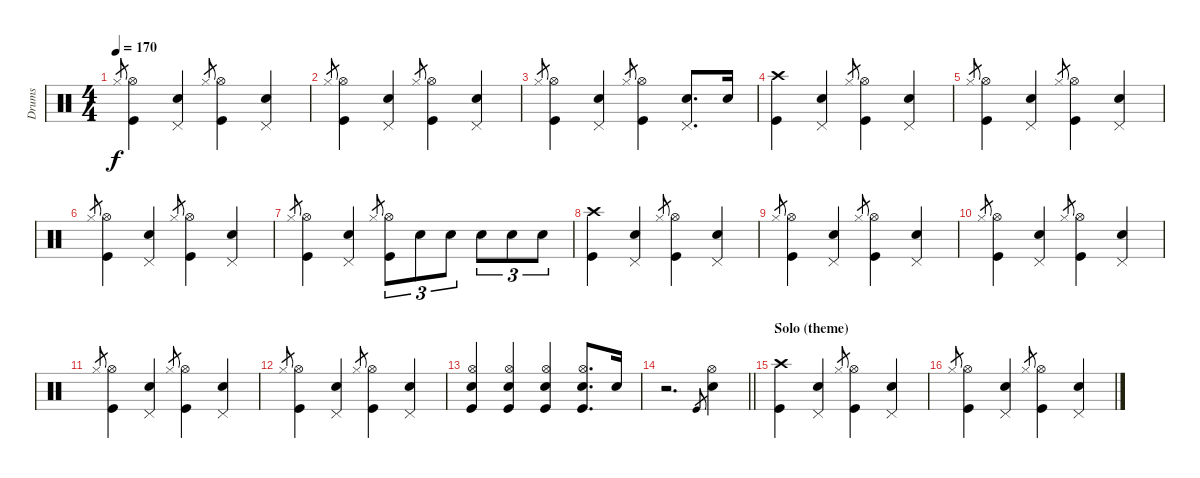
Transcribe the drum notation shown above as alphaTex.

\track ("Drums" "Drums") {instrument percussion}
\staff {score}
\articulation defaults
\ts (4 4)
\tempo 170
\clef neutral
\ks aminor "Hi-Hat (closed)".8{gr dy f}
("Kick (hit)" "Hi-Hat (open)").4 ("Electric Snare (hit)" "Pedal Hi-Hat (hit)").4 "Hi-Hat (closed)".8{gr} ("Kick (hit)" "Hi-Hat (open)").4 ("Electric Snare (hit)" "Pedal Hi-Hat (hit)").4 |
"Hi-Hat (closed)".8{gr} ("Kick (hit)" "Hi-Hat (open)").4 ("Electric Snare (hit)" "Pedal Hi-Hat (hit)").4 "Hi-Hat (closed)".8{gr} ("Kick (hit)" "Hi-Hat (open)").4 ("Electric Snare (hit)" "Pedal Hi-Hat (hit)").4 |
"Hi-Hat (closed)".8{gr} ("Kick (hit)" "Hi-Hat (open)").4 ("Electric Snare (hit)" "Pedal Hi-Hat (hit)").4 "Hi-Hat (closed)".8{gr} ("Kick (hit)" "Hi-Hat (open)").4 ("Electric Snare (hit)" "Pedal Hi-Hat (hit)").8{d} "Electric Snare (hit)".16 |
("Kick (hit)" "Crash high (hit)").4 ("Electric Snare (hit)" "Pedal Hi-Hat (hit)").4 "Hi-Hat (closed)".8{gr} ("Kick (hit)" "Hi-Hat (open)").4 ("Electric Snare (hit)" "Pedal Hi-Hat (hit)").4 |
"Hi-Hat (closed)".8{gr} ("Kick (hit)" "Hi-Hat (open)").4 ("Electric Snare (hit)" "Pedal Hi-Hat (hit)").4 "Hi-Hat (closed)".8{gr} ("Kick (hit)" "Hi-Hat (open)").4 ("Electric Snare (hit)" "Pedal Hi-Hat (hit)").4 |
"Hi-Hat (closed)".8{gr} ("Kick (hit)" "Hi-Hat (open)").4 ("Electric Snare (hit)" "Pedal Hi-Hat (hit)").4 "Hi-Hat (closed)".8{gr} ("Kick (hit)" "Hi-Hat (open)").4 ("Electric Snare (hit)" "Pedal Hi-Hat (hit)").4 |
"Hi-Hat (closed)".8{gr} ("Kick (hit)" "Hi-Hat (open)").4 ("Electric Snare (hit)" "Pedal Hi-Hat (hit)").4 "Hi-Hat (closed)".8{gr} ("Kick (hit)" "Hi-Hat (open)").8{tu (3 2)} "Electric Snare (hit)".8{tu (3 2)} "Electric Snare (hit)".8{tu (3 2)} "Electric Snare (hit)".8{tu (3 2)} "Electric Snare (hit)".8{tu (3 2)} "Electric Snare (hit)".8{tu (3 2)} |
("Kick (hit)" "Crash high (hit)").4 ("Electric Snare (hit)" "Pedal Hi-Hat (hit)").4 "Hi-Hat (closed)".8{gr} ("Kick (hit)" "Hi-Hat (open)").4 ("Electric Snare (hit)" "Pedal Hi-Hat (hit)").4 |
"Hi-Hat (closed)".8{gr} ("Kick (hit)" "Hi-Hat (open)").4 ("Electric Snare (hit)" "Pedal Hi-Hat (hit)").4 "Hi-Hat (closed)".8{gr} ("Kick (hit)" "Hi-Hat (open)").4 ("Electric Snare (hit)" "Pedal Hi-Hat (hit)").4 |
"Hi-Hat (closed)".8{gr} ("Kick (hit)" "Hi-Hat (open)").4 ("Electric Snare (hit)" "Pedal Hi-Hat (hit)").4 "Hi-Hat (closed)".8{gr} ("Kick (hit)" "Hi-Hat (open)").4 ("Electric Snare (hit)" "Pedal Hi-Hat (hit)").4 |
"Hi-Hat (closed)".8{gr} ("Kick (hit)" "Hi-Hat (open)").4 ("Electric Snare (hit)" "Pedal Hi-Hat (hit)").4 "Hi-Hat (closed)".8{gr} ("Kick (hit)" "Hi-Hat (open)").4 ("Electric Snare (hit)" "Pedal Hi-Hat (hit)").4 |
"Hi-Hat (closed)".8{gr} ("Kick (hit)" "Hi-Hat (open)").4 ("Electric Snare (hit)" "Pedal Hi-Hat (hit)").4 "Hi-Hat (closed)".8{gr} ("Kick (hit)" "Hi-Hat (open)").4 ("Electric Snare (hit)" "Pedal Hi-Hat (hit)").4 |
("Kick (hit)" "Hi-Hat (open)" "Electric Snare (hit)").4 ("Kick (hit)" "Hi-Hat (open)" "Electric Snare (hit)").4 ("Kick (hit)" "Hi-Hat (open)" "Electric Snare (hit)").4 ("Kick (hit)" "Hi-Hat (open)" "Electric Snare (hit)").8{d} "Electric Snare (hit)".16 |
\barLineRight lightlight
r.2{d} "Kick (hit)".8{gr} ("Hi-Hat (open)" "Electric Snare (hit)").4 |
\section ("" "Solo (theme)")
("Kick (hit)" "Crash high (hit)").4 ("Electric Snare (hit)" "Pedal Hi-Hat (hit)").4 "Hi-Hat (closed)".8{gr} ("Kick (hit)" "Hi-Hat (open)").4 ("Electric Snare (hit)" "Pedal Hi-Hat (hit)").4 |
"Hi-Hat (closed)".8{gr} ("Kick (hit)" "Hi-Hat (open)").4 ("Electric Snare (hit)" "Pedal Hi-Hat (hit)").4 "Hi-Hat (closed)".8{gr} ("Kick (hit)" "Hi-Hat (open)").4 ("Electric Snare (hit)" "Pedal Hi-Hat (hit)").4
